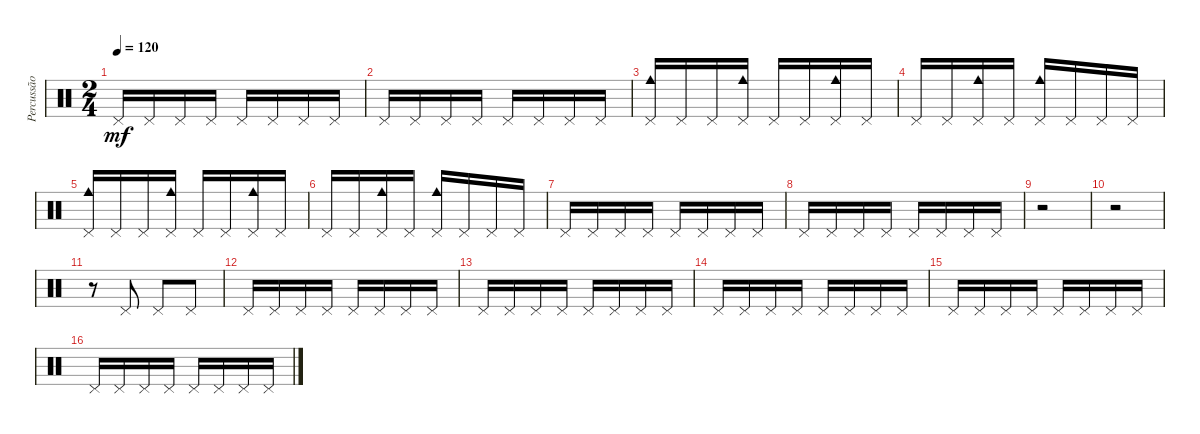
\track ("Percussão" "Percussão") {instrument percussion}
\staff {score}
\articulation defaults
\ts (2 4)
\tempo 120
\clef neutral
\ks c "Pedal Hi-Hat (hit)".16{dy mf} "Pedal Hi-Hat (hit)".16 "Pedal Hi-Hat (hit)".16 "Pedal Hi-Hat (hit)".16 "Pedal Hi-Hat (hit)".16 "Pedal Hi-Hat (hit)".16 "Pedal Hi-Hat (hit)".16 "Pedal Hi-Hat (hit)".16
|
"Pedal Hi-Hat (hit)".16 "Pedal Hi-Hat (hit)".16 "Pedal Hi-Hat (hit)".16 "Pedal Hi-Hat (hit)".16 "Pedal Hi-Hat (hit)".16 "Pedal Hi-Hat (hit)".16 "Pedal Hi-Hat (hit)".16 "Pedal Hi-Hat (hit)".16 |
("Pedal Hi-Hat (hit)" "Cowbell medium (hit)").16 "Pedal Hi-Hat (hit)".16 "Pedal Hi-Hat (hit)".16 ("Pedal Hi-Hat (hit)" "Cowbell medium (hit)").16 "Pedal Hi-Hat (hit)".16 "Pedal Hi-Hat (hit)".16 ("Cowbell medium (hit)" "Pedal Hi-Hat (hit)").16 "Pedal Hi-Hat (hit)".16 |
"Pedal Hi-Hat (hit)".16 "Pedal Hi-Hat (hit)".16 ("Pedal Hi-Hat (hit)" "Cowbell medium (hit)").16 "Pedal Hi-Hat (hit)".16 ("Pedal Hi-Hat (hit)" "Cowbell medium (hit)").16 "Pedal Hi-Hat (hit)".16 "Pedal Hi-Hat (hit)".16 "Pedal Hi-Hat (hit)".16 |
("Cowbell medium (hit)" "Pedal Hi-Hat (hit)").16 "Pedal Hi-Hat (hit)".16 "Pedal Hi-Hat (hit)".16 ("Pedal Hi-Hat (hit)" "Cowbell medium (hit)").16 "Pedal Hi-Hat (hit)".16 "Pedal Hi-Hat (hit)".16 ("Pedal Hi-Hat (hit)" "Cowbell medium (hit)").16 "Pedal Hi-Hat (hit)".16 |
"Pedal Hi-Hat (hit)".16 "Pedal Hi-Hat (hit)".16 ("Pedal Hi-Hat (hit)" "Cowbell medium (hit)").16 "Pedal Hi-Hat (hit)".16 ("Pedal Hi-Hat (hit)" "Cowbell medium (hit)").16 "Pedal Hi-Hat (hit)".16 "Pedal Hi-Hat (hit)".16 "Pedal Hi-Hat (hit)".16 |
"Pedal Hi-Hat (hit)".16 "Pedal Hi-Hat (hit)".16 "Pedal Hi-Hat (hit)".16 "Pedal Hi-Hat (hit)".16 "Pedal Hi-Hat (hit)".16 "Pedal Hi-Hat (hit)".16 "Pedal Hi-Hat (hit)".16 "Pedal Hi-Hat (hit)".16 |
"Pedal Hi-Hat (hit)".16 "Pedal Hi-Hat (hit)".16 "Pedal Hi-Hat (hit)".16 "Pedal Hi-Hat (hit)".16 "Pedal Hi-Hat (hit)".16 "Pedal Hi-Hat (hit)".16 "Pedal Hi-Hat (hit)".16 "Pedal Hi-Hat (hit)".16 |
r.2 |
r.2 |
r.8 "Pedal Hi-Hat (hit)".8 "Pedal Hi-Hat (hit)".8 "Pedal Hi-Hat (hit)".8 |
"Pedal Hi-Hat (hit)".16 "Pedal Hi-Hat (hit)".16 "Pedal Hi-Hat (hit)".16 "Pedal Hi-Hat (hit)".16 "Pedal Hi-Hat (hit)".16 "Pedal Hi-Hat (hit)".16 "Pedal Hi-Hat (hit)".16 "Pedal Hi-Hat (hit)".16 |
"Pedal Hi-Hat (hit)".16 "Pedal Hi-Hat (hit)".16 "Pedal Hi-Hat (hit)".16 "Pedal Hi-Hat (hit)".16 "Pedal Hi-Hat (hit)".16 "Pedal Hi-Hat (hit)".16 "Pedal Hi-Hat (hit)".16 "Pedal Hi-Hat (hit)".16 |
"Pedal Hi-Hat (hit)".16 "Pedal Hi-Hat (hit)".16 "Pedal Hi-Hat (hit)".16 "Pedal Hi-Hat (hit)".16 "Pedal Hi-Hat (hit)".16 "Pedal Hi-Hat (hit)".16 "Pedal Hi-Hat (hit)".16 "Pedal Hi-Hat (hit)".16 |
"Pedal Hi-Hat (hit)".16 "Pedal Hi-Hat (hit)".16 "Pedal Hi-Hat (hit)".16 "Pedal Hi-Hat (hit)".16 "Pedal Hi-Hat (hit)".16 "Pedal Hi-Hat (hit)".16 "Pedal Hi-Hat (hit)".16 "Pedal Hi-Hat (hit)".16 |
"Pedal Hi-Hat (hit)".16 "Pedal Hi-Hat (hit)".16 "Pedal Hi-Hat (hit)".16 "Pedal Hi-Hat (hit)".16 "Pedal Hi-Hat (hit)".16 "Pedal Hi-Hat (hit)".16 "Pedal Hi-Hat (hit)".16 "Pedal Hi-Hat (hit)".16
